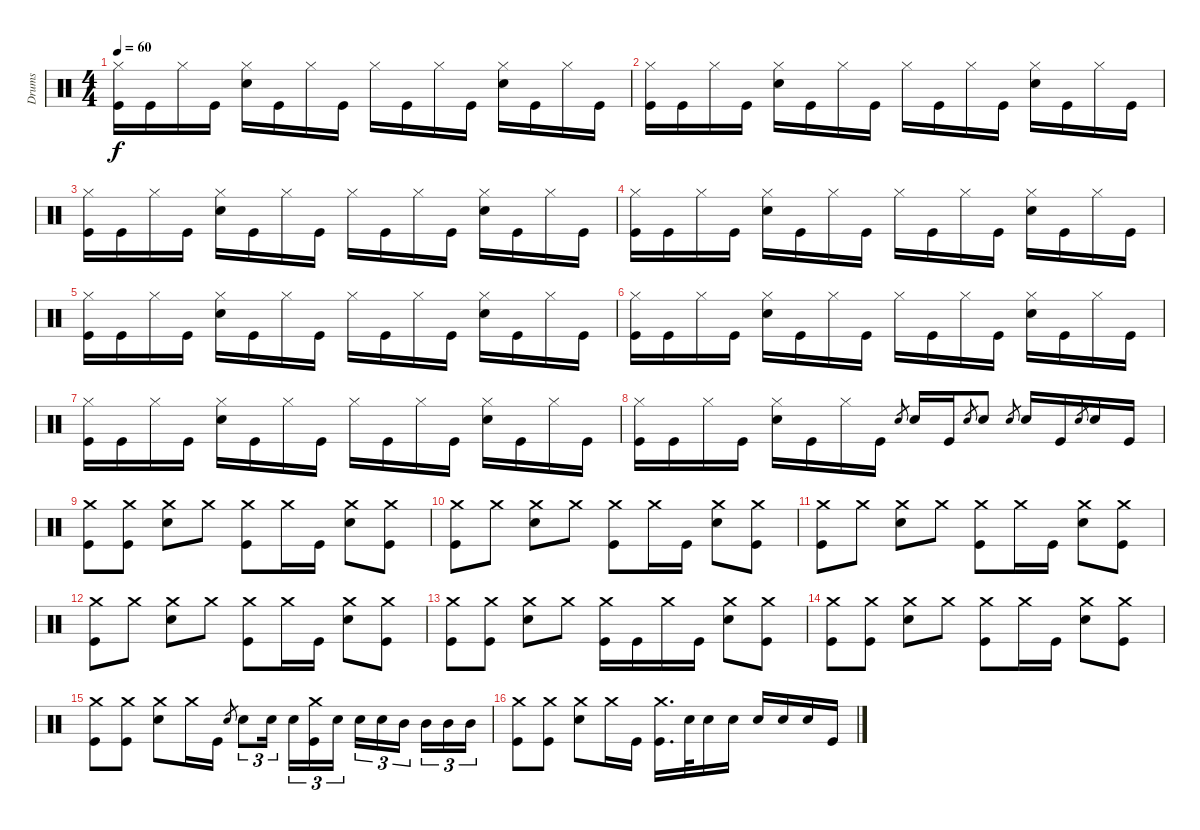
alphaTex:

\track ("Drums" "Drums") {instrument percussion}
\staff {score}
\articulation defaults
\ts (4 4)
\tempo 60
\clef neutral
\ks c
("Kick (hit)" "Hi-Hat (closed)").16{dy f volume 0} "Kick (hit)".16{volume 12} "Hi-Hat (closed)".16 "Kick (hit)".16 ("Electric Snare (hit)" "Hi-Hat (closed)").16 "Kick (hit)".16 "Hi-Hat (closed)".16 "Kick (hit)".16 "Hi-Hat (closed)".16 "Kick (hit)".16 "Hi-Hat (closed)".16 "Kick (hit)".16 ("Electric Snare (hit)" "Hi-Hat (closed)").16 "Kick (hit)".16 "Hi-Hat (closed)".16 "Kick (hit)".16 |
("Kick (hit)" "Hi-Hat (closed)").16 "Kick (hit)".16 "Hi-Hat (closed)".16 "Kick (hit)".16 ("Electric Snare (hit)" "Hi-Hat (closed)").16 "Kick (hit)".16 "Hi-Hat (closed)".16 "Kick (hit)".16 "Hi-Hat (closed)".16 "Kick (hit)".16 "Hi-Hat (closed)".16 "Kick (hit)".16 ("Electric Snare (hit)" "Hi-Hat (closed)").16 "Kick (hit)".16 "Hi-Hat (closed)".16 "Kick (hit)".16 |
("Kick (hit)" "Hi-Hat (closed)").16 "Kick (hit)".16 "Hi-Hat (closed)".16 "Kick (hit)".16 ("Electric Snare (hit)" "Hi-Hat (closed)").16 "Kick (hit)".16 "Hi-Hat (closed)".16 "Kick (hit)".16 "Hi-Hat (closed)".16 "Kick (hit)".16 "Hi-Hat (closed)".16 "Kick (hit)".16 ("Electric Snare (hit)" "Hi-Hat (closed)").16 "Kick (hit)".16 "Hi-Hat (closed)".16 "Kick (hit)".16 |
("Kick (hit)" "Hi-Hat (closed)").16 "Kick (hit)".16 "Hi-Hat (closed)".16 "Kick (hit)".16 ("Electric Snare (hit)" "Hi-Hat (closed)").16 "Kick (hit)".16 "Hi-Hat (closed)".16 "Kick (hit)".16 "Hi-Hat (closed)".16 "Kick (hit)".16 "Hi-Hat (closed)".16 "Kick (hit)".16 ("Electric Snare (hit)" "Hi-Hat (closed)").16 "Kick (hit)".16 "Hi-Hat (closed)".16 "Kick (hit)".16 |
("Kick (hit)" "Hi-Hat (closed)").16 "Kick (hit)".16 "Hi-Hat (closed)".16 "Kick (hit)".16 ("Electric Snare (hit)" "Hi-Hat (closed)").16 "Kick (hit)".16 "Hi-Hat (closed)".16 "Kick (hit)".16 "Hi-Hat (closed)".16 "Kick (hit)".16 "Hi-Hat (closed)".16 "Kick (hit)".16 ("Electric Snare (hit)" "Hi-Hat (closed)").16 "Kick (hit)".16 "Hi-Hat (closed)".16 "Kick (hit)".16 |
("Kick (hit)" "Hi-Hat (closed)").16 "Kick (hit)".16 "Hi-Hat (closed)".16 "Kick (hit)".16 ("Electric Snare (hit)" "Hi-Hat (closed)").16 "Kick (hit)".16 "Hi-Hat (closed)".16 "Kick (hit)".16 "Hi-Hat (closed)".16 "Kick (hit)".16 "Hi-Hat (closed)".16 "Kick (hit)".16 ("Electric Snare (hit)" "Hi-Hat (closed)").16 "Kick (hit)".16 "Hi-Hat (closed)".16 "Kick (hit)".16 |
("Kick (hit)" "Hi-Hat (closed)").16 "Kick (hit)".16 "Hi-Hat (closed)".16 "Kick (hit)".16 ("Electric Snare (hit)" "Hi-Hat (closed)").16 "Kick (hit)".16 "Hi-Hat (closed)".16 "Kick (hit)".16 "Hi-Hat (closed)".16 "Kick (hit)".16 "Hi-Hat (closed)".16 "Kick (hit)".16 ("Electric Snare (hit)" "Hi-Hat (closed)").16 "Kick (hit)".16 "Hi-Hat (closed)".16 "Kick (hit)".16 |
("Kick (hit)" "Hi-Hat (closed)").16 "Kick (hit)".16 "Hi-Hat (closed)".16 "Kick (hit)".16 ("Electric Snare (hit)" "Hi-Hat (closed)").16 "Kick (hit)".16 "Hi-Hat (closed)".16 "Kick (hit)".16 "Electric Snare (hit)".8{gr} "Electric Snare (hit)".16 "Kick (hit)".16 "Electric Snare (hit)".8{gr} "Electric Snare (hit)".8 "Electric Snare (hit)".8{gr} "Electric Snare (hit)".16 "Kick (hit)".16 "Electric Snare (hit)".8{gr} "Electric Snare (hit)".16 "Kick (hit)".16 |
("Kick (hit)" "Crash medium (hit)").8 ("Kick (hit)" "Crash medium (hit)").8 ("Electric Snare (hit)" "Crash medium (hit)").8 "Crash medium (hit)".8 ("Kick (hit)" "Crash medium (hit)").8 "Crash medium (hit)".16 "Kick (hit)".16 ("Electric Snare (hit)" "Crash medium (hit)").8 ("Kick (hit)" "Crash medium (hit)").8 |
("Kick (hit)" "Crash medium (hit)").8 "Crash medium (hit)".8 ("Electric Snare (hit)" "Crash medium (hit)").8 "Crash medium (hit)".8 ("Kick (hit)" "Crash medium (hit)").8 "Crash medium (hit)".16 "Kick (hit)".16 ("Electric Snare (hit)" "Crash medium (hit)").8 ("Kick (hit)" "Crash medium (hit)").8 |
("Kick (hit)" "Crash medium (hit)").8 "Crash medium (hit)".8 ("Electric Snare (hit)" "Crash medium (hit)").8 "Crash medium (hit)".8 ("Kick (hit)" "Crash medium (hit)").8 "Crash medium (hit)".16 "Kick (hit)".16 ("Electric Snare (hit)" "Crash medium (hit)").8 ("Kick (hit)" "Crash medium (hit)").8 |
("Kick (hit)" "Crash medium (hit)").8 "Crash medium (hit)".8 ("Electric Snare (hit)" "Crash medium (hit)").8 "Crash medium (hit)".8 ("Kick (hit)" "Crash medium (hit)").8 "Crash medium (hit)".16 "Kick (hit)".16 ("Electric Snare (hit)" "Crash medium (hit)").8 ("Kick (hit)" "Crash medium (hit)").8 |
("Kick (hit)" "Crash medium (hit)").8 ("Kick (hit)" "Crash medium (hit)").8 ("Electric Snare (hit)" "Crash medium (hit)").8 "Crash medium (hit)".8 ("Kick (hit)" "Crash medium (hit)").16 "Kick (hit)".16 "Crash medium (hit)".16 "Kick (hit)".16 ("Electric Snare (hit)" "Crash medium (hit)").8 ("Kick (hit)" "Crash medium (hit)").8 |
("Kick (hit)" "Crash medium (hit)").8 ("Kick (hit)" "Crash medium (hit)").8 ("Electric Snare (hit)" "Crash medium (hit)").8 "Crash medium (hit)".8 ("Kick (hit)" "Crash medium (hit)").8 "Crash medium (hit)".16 "Kick (hit)".16 ("Electric Snare (hit)" "Crash medium (hit)").8 ("Kick (hit)" "Crash medium (hit)").8 |
("Kick (hit)" "Crash medium (hit)").8 ("Kick (hit)" "Crash medium (hit)").8 ("Electric Snare (hit)" "Crash medium (hit)").8 "Crash medium (hit)".16 "Kick (hit)".16 "Electric Snare (hit)".8{gr} "Electric Snare (hit)".8{tu (3 2)} "Electric Snare (hit)".16{tu (3 2)} "Electric Snare (hit)".16{tu (3 2)} ("Kick (hit)" "Crash medium (hit)").16{tu (3 2)} "Electric Snare (hit)".16{tu (3 2)} "Electric Snare (hit)".16{tu (3 2)} "Electric Snare (hit)".16{tu (3 2)} "Mid Tom (hit)".16{tu (3 2)} "Mid Tom (hit)".16{tu (3 2)} "Mid Tom (hit)".16{tu (3 2)} "Mid Tom (hit)".16{tu (3 2)} |
("Kick (hit)" "Crash medium (hit)").8 ("Kick (hit)" "Crash medium (hit)").8 ("Electric Snare (hit)" "Crash medium (hit)").8 "Crash medium (hit)".16 "Kick (hit)".16 ("Kick (hit)" "Crash medium (hit)").16{d} "Electric Snare (hit)".32 "Electric Snare (hit)".16 "Electric Snare (hit)".16 "Electric Snare (hit)".16 "Electric Snare (hit)".16 "Electric Snare (hit)".16 "Kick (hit)".16
